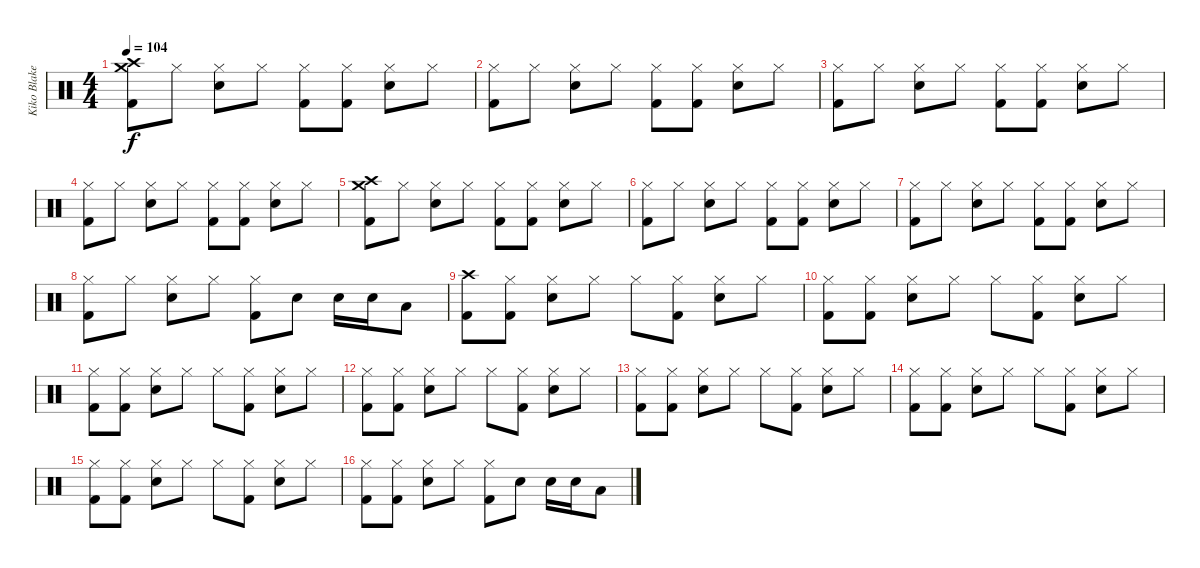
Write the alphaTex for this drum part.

\track ("Kiko Blake" "Kiko Blake") {instrument percussion}
\staff
\articulation defaults
\ts (4 4)
\tempo 104
\clef neutral
\ks c
("Crash medium (hit)" "Crash high (hit)" "Kick (hit) 2").8{dy f} "Hi-Hat (closed)".8 ("Hi-Hat (closed)" "Snare (hit) 2").8 "Hi-Hat (closed)".8 ("Hi-Hat (closed)" "Kick (hit) 2").8 ("Hi-Hat (closed)" "Kick (hit) 2").8 ("Hi-Hat (closed)" "Snare (hit) 2").8 "Hi-Hat (closed)".8 |
("Hi-Hat (closed)" "Kick (hit) 2").8 "Hi-Hat (closed)".8 ("Hi-Hat (closed)" "Snare (hit) 2").8 "Hi-Hat (closed)".8 ("Hi-Hat (closed)" "Kick (hit) 2").8 ("Hi-Hat (closed)" "Kick (hit) 2").8 ("Hi-Hat (closed)" "Snare (hit) 2").8 "Hi-Hat (closed)".8 |
("Hi-Hat (closed)" "Kick (hit) 2").8 "Hi-Hat (closed)".8 ("Hi-Hat (closed)" "Snare (hit) 2").8 "Hi-Hat (closed)".8 ("Hi-Hat (closed)" "Kick (hit) 2").8 ("Hi-Hat (closed)" "Kick (hit) 2").8 ("Hi-Hat (closed)" "Snare (hit) 2").8 "Hi-Hat (closed)".8 |
("Hi-Hat (closed)" "Kick (hit) 2").8 "Hi-Hat (closed)".8 ("Hi-Hat (closed)" "Snare (hit) 2").8 "Hi-Hat (closed)".8 ("Hi-Hat (closed)" "Kick (hit) 2").8 ("Hi-Hat (closed)" "Kick (hit) 2").8 ("Hi-Hat (closed)" "Snare (hit) 2").8 "Hi-Hat (closed)".8 |
("Crash medium (hit)" "Crash high (hit)" "Kick (hit) 2").8 "Hi-Hat (closed)".8 ("Hi-Hat (closed)" "Snare (hit) 2").8 "Hi-Hat (closed)".8 ("Hi-Hat (closed)" "Kick (hit) 2").8 ("Hi-Hat (closed)" "Kick (hit) 2").8 ("Hi-Hat (closed)" "Snare (hit) 2").8 "Hi-Hat (closed)".8 |
("Hi-Hat (closed)" "Kick (hit) 2").8 "Hi-Hat (closed)".8 ("Hi-Hat (closed)" "Snare (hit) 2").8 "Hi-Hat (closed)".8 ("Hi-Hat (closed)" "Kick (hit) 2").8 ("Hi-Hat (closed)" "Kick (hit) 2").8 ("Hi-Hat (closed)" "Snare (hit) 2").8 "Hi-Hat (closed)".8 |
("Hi-Hat (closed)" "Kick (hit) 2").8 "Hi-Hat (closed)".8 ("Hi-Hat (closed)" "Snare (hit) 2").8 "Hi-Hat (closed)".8 ("Hi-Hat (closed)" "Kick (hit) 2").8 ("Hi-Hat (closed)" "Kick (hit) 2").8 ("Hi-Hat (closed)" "Snare (hit) 2").8 "Hi-Hat (closed)".8 |
("Hi-Hat (closed)" "Kick (hit) 2").8 "Hi-Hat (closed)".8 ("Hi-Hat (closed)" "Snare (hit) 2").8 "Hi-Hat (closed)".8 ("Hi-Hat (closed)" "Kick (hit) 2").8 "Snare (hit) 2".8 "Snare (hit) 2".16 "Snare (hit) 2".16 "Low Tom (hit)".8 |
("Crash high (hit)" "Kick (hit) 2").8 ("Hi-Hat (closed)" "Kick (hit) 2").8 ("Hi-Hat (closed)" "Snare (hit) 2").8 "Hi-Hat (closed)".8 "Hi-Hat (closed)".8 ("Hi-Hat (closed)" "Kick (hit) 2").8 ("Hi-Hat (closed)" "Snare (hit) 2").8 "Hi-Hat (closed)".8 |
("Hi-Hat (closed)" "Kick (hit) 2").8 ("Hi-Hat (closed)" "Kick (hit) 2").8 ("Hi-Hat (closed)" "Snare (hit) 2").8 "Hi-Hat (closed)".8 "Hi-Hat (closed)".8 ("Hi-Hat (closed)" "Kick (hit) 2").8 ("Hi-Hat (closed)" "Snare (hit) 2").8 "Hi-Hat (closed)".8 |
("Hi-Hat (closed)" "Kick (hit) 2").8 ("Hi-Hat (closed)" "Kick (hit) 2").8 ("Hi-Hat (closed)" "Snare (hit) 2").8 "Hi-Hat (closed)".8 "Hi-Hat (closed)".8 ("Hi-Hat (closed)" "Kick (hit) 2").8 ("Hi-Hat (closed)" "Snare (hit) 2").8 "Hi-Hat (closed)".8 |
("Hi-Hat (closed)" "Kick (hit) 2").8 ("Hi-Hat (closed)" "Kick (hit) 2").8 ("Hi-Hat (closed)" "Snare (hit) 2").8 "Hi-Hat (closed)".8 "Hi-Hat (closed)".8 ("Hi-Hat (closed)" "Kick (hit) 2").8 ("Hi-Hat (closed)" "Snare (hit) 2").8 "Hi-Hat (closed)".8 |
("Hi-Hat (closed)" "Kick (hit) 2").8 ("Hi-Hat (closed)" "Kick (hit) 2").8 ("Hi-Hat (closed)" "Snare (hit) 2").8 "Hi-Hat (closed)".8 "Hi-Hat (closed)".8 ("Hi-Hat (closed)" "Kick (hit) 2").8 ("Hi-Hat (closed)" "Snare (hit) 2").8 "Hi-Hat (closed)".8 |
("Hi-Hat (closed)" "Kick (hit) 2").8 ("Hi-Hat (closed)" "Kick (hit) 2").8 ("Hi-Hat (closed)" "Snare (hit) 2").8 "Hi-Hat (closed)".8 "Hi-Hat (closed)".8 ("Hi-Hat (closed)" "Kick (hit) 2").8 ("Hi-Hat (closed)" "Snare (hit) 2").8 "Hi-Hat (closed)".8 |
("Hi-Hat (closed)" "Kick (hit) 2").8 ("Hi-Hat (closed)" "Kick (hit) 2").8 ("Hi-Hat (closed)" "Snare (hit) 2").8 "Hi-Hat (closed)".8 "Hi-Hat (closed)".8 ("Hi-Hat (closed)" "Kick (hit) 2").8 ("Hi-Hat (closed)" "Snare (hit) 2").8 "Hi-Hat (closed)".8 |
("Hi-Hat (closed)" "Kick (hit) 2").8 ("Hi-Hat (closed)" "Kick (hit) 2").8 ("Hi-Hat (closed)" "Snare (hit) 2").8 "Hi-Hat (closed)".8 ("Hi-Hat (closed)" "Kick (hit) 2").8 "Snare (hit) 2".8 "Snare (hit) 2".16 "Snare (hit) 2".16 "Low Tom (hit)".8
